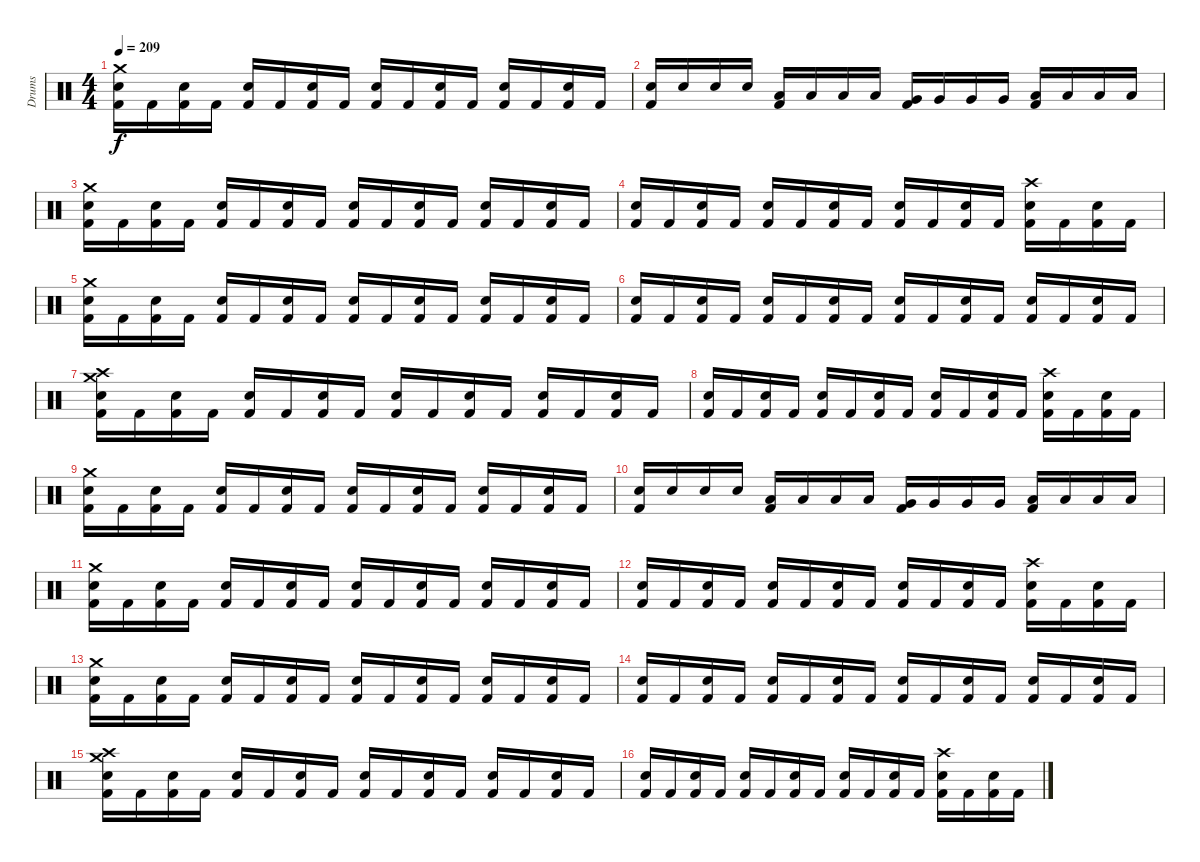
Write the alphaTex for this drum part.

\track ("Drums" "Drums") {instrument percussion}
\staff {score}
\articulation defaults
\ts (4 4)
\tempo 209
\clef neutral
\ks c
("Kick (hit) 2" "Snare (hit) 2" "Crash medium (hit)").16{dy f} "Kick (hit) 2".16 ("Kick (hit) 2" "Snare (hit) 2").16 "Kick (hit) 2".16 ("Kick (hit) 2" "Snare (hit) 2").16 "Kick (hit) 2".16 ("Kick (hit) 2" "Snare (hit) 2").16 "Kick (hit) 2".16 ("Kick (hit) 2" "Snare (hit) 2").16 "Kick (hit) 2".16 ("Kick (hit) 2" "Snare (hit) 2").16 "Kick (hit) 2".16 ("Kick (hit) 2" "Snare (hit) 2").16 "Kick (hit) 2".16 ("Kick (hit) 2" "Snare (hit) 2").16 "Kick (hit) 2".16 |
("Kick (hit) 2" "Snare (hit) 2").16 "Snare (hit) 2".16 "Snare (hit) 2".16 "Snare (hit) 2".16 ("Kick (hit) 2" "Low Tom (hit)").16 "Low Tom (hit)".16 "Low Tom (hit)".16 "Low Tom (hit)".16 ("Kick (hit) 2" "Very Low Tom (hit)").16 "Very Low Tom (hit)".16 "Very Low Tom (hit)".16 "Very Low Tom (hit)".16 ("Kick (hit) 2" "Low Floor Tom (hit)").16 "Low Floor Tom (hit)".16 "Low Floor Tom (hit)".16 "Low Floor Tom (hit)".16 |
("Kick (hit) 2" "Snare (hit) 2" "Crash medium (hit)").16 "Kick (hit) 2".16 ("Kick (hit) 2" "Snare (hit) 2").16 "Kick (hit) 2".16 ("Kick (hit) 2" "Snare (hit) 2").16 "Kick (hit) 2".16 ("Kick (hit) 2" "Snare (hit) 2").16 "Kick (hit) 2".16 ("Kick (hit) 2" "Snare (hit) 2").16 "Kick (hit) 2".16 ("Kick (hit) 2" "Snare (hit) 2").16 "Kick (hit) 2".16 ("Kick (hit) 2" "Snare (hit) 2").16 "Kick (hit) 2".16 ("Kick (hit) 2" "Snare (hit) 2").16 "Kick (hit) 2".16 |
("Kick (hit) 2" "Snare (hit) 2").16 "Kick (hit) 2".16 ("Kick (hit) 2" "Snare (hit) 2").16 "Kick (hit) 2".16 ("Kick (hit) 2" "Snare (hit) 2").16 "Kick (hit) 2".16 ("Kick (hit) 2" "Snare (hit) 2").16 "Kick (hit) 2".16 ("Kick (hit) 2" "Snare (hit) 2").16 "Kick (hit) 2".16 ("Kick (hit) 2" "Snare (hit) 2").16 "Kick (hit) 2".16 ("Kick (hit) 2" "Snare (hit) 2" "Crash high (hit)").16 "Kick (hit) 2".16 ("Kick (hit) 2" "Snare (hit) 2").16 "Kick (hit) 2".16 |
("Kick (hit) 2" "Snare (hit) 2" "Crash medium (hit)").16 "Kick (hit) 2".16 ("Kick (hit) 2" "Snare (hit) 2").16 "Kick (hit) 2".16 ("Kick (hit) 2" "Snare (hit) 2").16 "Kick (hit) 2".16 ("Kick (hit) 2" "Snare (hit) 2").16 "Kick (hit) 2".16 ("Kick (hit) 2" "Snare (hit) 2").16 "Kick (hit) 2".16 ("Kick (hit) 2" "Snare (hit) 2").16 "Kick (hit) 2".16 ("Kick (hit) 2" "Snare (hit) 2").16 "Kick (hit) 2".16 ("Kick (hit) 2" "Snare (hit) 2").16 "Kick (hit) 2".16 |
("Kick (hit) 2" "Snare (hit) 2").16 "Kick (hit) 2".16 ("Kick (hit) 2" "Snare (hit) 2").16 "Kick (hit) 2".16 ("Kick (hit) 2" "Snare (hit) 2").16 "Kick (hit) 2".16 ("Kick (hit) 2" "Snare (hit) 2").16 "Kick (hit) 2".16 ("Kick (hit) 2" "Snare (hit) 2").16 "Kick (hit) 2".16 ("Kick (hit) 2" "Snare (hit) 2").16 "Kick (hit) 2".16 ("Kick (hit) 2" "Snare (hit) 2").16 "Kick (hit) 2".16 ("Kick (hit) 2" "Snare (hit) 2").16 "Kick (hit) 2".16 |
("Kick (hit) 2" "Snare (hit) 2" "Crash high (hit)" "Crash medium (hit)").16 "Kick (hit) 2".16 ("Kick (hit) 2" "Snare (hit) 2").16 "Kick (hit) 2".16 ("Kick (hit) 2" "Snare (hit) 2").16 "Kick (hit) 2".16 ("Kick (hit) 2" "Snare (hit) 2").16 "Kick (hit) 2".16 ("Kick (hit) 2" "Snare (hit) 2").16 "Kick (hit) 2".16 ("Kick (hit) 2" "Snare (hit) 2").16 "Kick (hit) 2".16 ("Kick (hit) 2" "Snare (hit) 2").16 "Kick (hit) 2".16 ("Kick (hit) 2" "Snare (hit) 2").16 "Kick (hit) 2".16 |
("Kick (hit) 2" "Snare (hit) 2").16 "Kick (hit) 2".16 ("Kick (hit) 2" "Snare (hit) 2").16 "Kick (hit) 2".16 ("Kick (hit) 2" "Snare (hit) 2").16 "Kick (hit) 2".16 ("Kick (hit) 2" "Snare (hit) 2").16 "Kick (hit) 2".16 ("Kick (hit) 2" "Snare (hit) 2").16 "Kick (hit) 2".16 ("Kick (hit) 2" "Snare (hit) 2").16 "Kick (hit) 2".16 ("Kick (hit) 2" "Snare (hit) 2" "Crash high (hit)").16 "Kick (hit) 2".16 ("Kick (hit) 2" "Snare (hit) 2").16 "Kick (hit) 2".16 |
("Kick (hit) 2" "Snare (hit) 2" "Crash medium (hit)").16 "Kick (hit) 2".16 ("Kick (hit) 2" "Snare (hit) 2").16 "Kick (hit) 2".16 ("Kick (hit) 2" "Snare (hit) 2").16 "Kick (hit) 2".16 ("Kick (hit) 2" "Snare (hit) 2").16 "Kick (hit) 2".16 ("Kick (hit) 2" "Snare (hit) 2").16 "Kick (hit) 2".16 ("Kick (hit) 2" "Snare (hit) 2").16 "Kick (hit) 2".16 ("Kick (hit) 2" "Snare (hit) 2").16 "Kick (hit) 2".16 ("Kick (hit) 2" "Snare (hit) 2").16 "Kick (hit) 2".16 |
("Kick (hit) 2" "Snare (hit) 2").16 "Snare (hit) 2".16 "Snare (hit) 2".16 "Snare (hit) 2".16 ("Kick (hit) 2" "Low Tom (hit)").16 "Low Tom (hit)".16 "Low Tom (hit)".16 "Low Tom (hit)".16 ("Kick (hit) 2" "Very Low Tom (hit)").16 "Very Low Tom (hit)".16 "Very Low Tom (hit)".16 "Very Low Tom (hit)".16 ("Kick (hit) 2" "Low Floor Tom (hit)").16 "Low Floor Tom (hit)".16 "Low Floor Tom (hit)".16 "Low Floor Tom (hit)".16 |
("Kick (hit) 2" "Snare (hit) 2" "Crash medium (hit)").16 "Kick (hit) 2".16 ("Kick (hit) 2" "Snare (hit) 2").16 "Kick (hit) 2".16 ("Kick (hit) 2" "Snare (hit) 2").16 "Kick (hit) 2".16 ("Kick (hit) 2" "Snare (hit) 2").16 "Kick (hit) 2".16 ("Kick (hit) 2" "Snare (hit) 2").16 "Kick (hit) 2".16 ("Kick (hit) 2" "Snare (hit) 2").16 "Kick (hit) 2".16 ("Kick (hit) 2" "Snare (hit) 2").16 "Kick (hit) 2".16 ("Kick (hit) 2" "Snare (hit) 2").16 "Kick (hit) 2".16 |
("Kick (hit) 2" "Snare (hit) 2").16 "Kick (hit) 2".16 ("Kick (hit) 2" "Snare (hit) 2").16 "Kick (hit) 2".16 ("Kick (hit) 2" "Snare (hit) 2").16 "Kick (hit) 2".16 ("Kick (hit) 2" "Snare (hit) 2").16 "Kick (hit) 2".16 ("Kick (hit) 2" "Snare (hit) 2").16 "Kick (hit) 2".16 ("Kick (hit) 2" "Snare (hit) 2").16 "Kick (hit) 2".16 ("Kick (hit) 2" "Snare (hit) 2" "Crash high (hit)").16 "Kick (hit) 2".16 ("Kick (hit) 2" "Snare (hit) 2").16 "Kick (hit) 2".16 |
("Kick (hit) 2" "Snare (hit) 2" "Crash medium (hit)").16 "Kick (hit) 2".16 ("Kick (hit) 2" "Snare (hit) 2").16 "Kick (hit) 2".16 ("Kick (hit) 2" "Snare (hit) 2").16 "Kick (hit) 2".16 ("Kick (hit) 2" "Snare (hit) 2").16 "Kick (hit) 2".16 ("Kick (hit) 2" "Snare (hit) 2").16 "Kick (hit) 2".16 ("Kick (hit) 2" "Snare (hit) 2").16 "Kick (hit) 2".16 ("Kick (hit) 2" "Snare (hit) 2").16 "Kick (hit) 2".16 ("Kick (hit) 2" "Snare (hit) 2").16 "Kick (hit) 2".16 |
("Kick (hit) 2" "Snare (hit) 2").16 "Kick (hit) 2".16 ("Kick (hit) 2" "Snare (hit) 2").16 "Kick (hit) 2".16 ("Kick (hit) 2" "Snare (hit) 2").16 "Kick (hit) 2".16 ("Kick (hit) 2" "Snare (hit) 2").16 "Kick (hit) 2".16 ("Kick (hit) 2" "Snare (hit) 2").16 "Kick (hit) 2".16 ("Kick (hit) 2" "Snare (hit) 2").16 "Kick (hit) 2".16 ("Kick (hit) 2" "Snare (hit) 2").16 "Kick (hit) 2".16 ("Kick (hit) 2" "Snare (hit) 2").16 "Kick (hit) 2".16 |
("Kick (hit) 2" "Snare (hit) 2" "Crash high (hit)" "Crash medium (hit)").16 "Kick (hit) 2".16 ("Kick (hit) 2" "Snare (hit) 2").16 "Kick (hit) 2".16 ("Kick (hit) 2" "Snare (hit) 2").16 "Kick (hit) 2".16 ("Kick (hit) 2" "Snare (hit) 2").16 "Kick (hit) 2".16 ("Kick (hit) 2" "Snare (hit) 2").16 "Kick (hit) 2".16 ("Kick (hit) 2" "Snare (hit) 2").16 "Kick (hit) 2".16 ("Kick (hit) 2" "Snare (hit) 2").16 "Kick (hit) 2".16 ("Kick (hit) 2" "Snare (hit) 2").16 "Kick (hit) 2".16 |
("Kick (hit) 2" "Snare (hit) 2").16 "Kick (hit) 2".16 ("Kick (hit) 2" "Snare (hit) 2").16 "Kick (hit) 2".16 ("Kick (hit) 2" "Snare (hit) 2").16 "Kick (hit) 2".16 ("Kick (hit) 2" "Snare (hit) 2").16 "Kick (hit) 2".16 ("Kick (hit) 2" "Snare (hit) 2").16 "Kick (hit) 2".16 ("Kick (hit) 2" "Snare (hit) 2").16 "Kick (hit) 2".16 ("Kick (hit) 2" "Snare (hit) 2" "Crash high (hit)").16 "Kick (hit) 2".16 ("Kick (hit) 2" "Snare (hit) 2").16 "Kick (hit) 2".16
